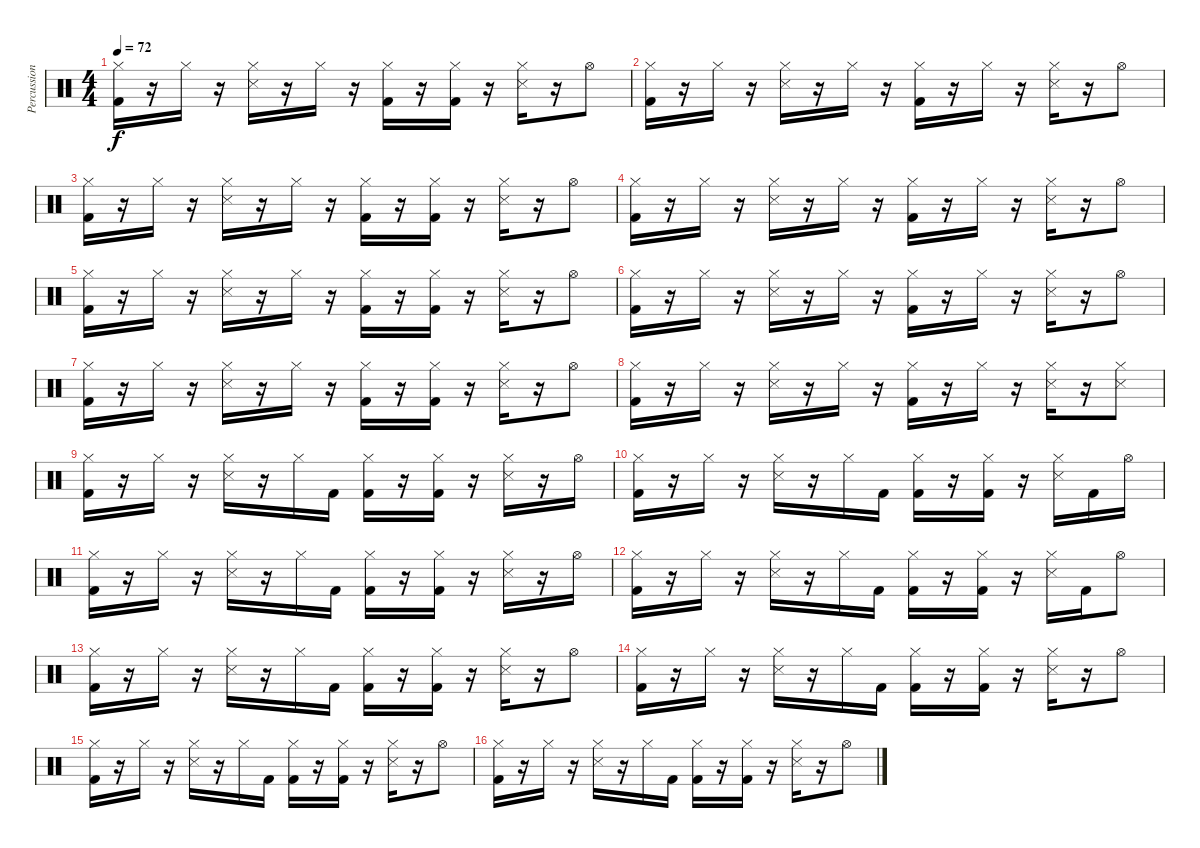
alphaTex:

\track ("Percussions" "Percussion") {instrument percussion}
\staff {score}
\articulation defaults
\ts (4 4)
\tempo 72
\clef neutral
\ks c
("Kick (hit) 2" "Hi-Hat (closed)").16{dy f} r.16 "Hi-Hat (closed)".16 r.16 ("Snare (side stick) 3" "Hi-Hat (closed)").16 r.16 "Hi-Hat (closed)".16 r.16 ("Kick (hit) 2" "Hi-Hat (closed)").16 r.16 ("Kick (hit) 2" "Hi-Hat (closed)").16 r.16 ("Snare (side stick) 3" "Hi-Hat (closed)").16 r.16 "Hi-Hat (open)".8 |
("Kick (hit) 2" "Hi-Hat (closed)").16 r.16 "Hi-Hat (closed)".16 r.16 ("Snare (side stick) 3" "Hi-Hat (closed)").16 r.16 "Hi-Hat (closed)".16 r.16 ("Kick (hit) 2" "Hi-Hat (closed)").16 r.16 "Hi-Hat (closed)".16 r.16 ("Snare (side stick) 3" "Hi-Hat (closed)").16 r.16 "Hi-Hat (open)".8 |
("Kick (hit) 2" "Hi-Hat (closed)").16 r.16 "Hi-Hat (closed)".16 r.16 ("Snare (side stick) 3" "Hi-Hat (closed)").16 r.16 "Hi-Hat (closed)".16 r.16 ("Kick (hit) 2" "Hi-Hat (closed)").16 r.16 ("Kick (hit) 2" "Hi-Hat (closed)").16 r.16 ("Snare (side stick) 3" "Hi-Hat (closed)").16 r.16 "Hi-Hat (open)".8 |
("Kick (hit) 2" "Hi-Hat (closed)").16 r.16 "Hi-Hat (closed)".16 r.16 ("Snare (side stick) 3" "Hi-Hat (closed)").16 r.16 "Hi-Hat (closed)".16 r.16 ("Kick (hit) 2" "Hi-Hat (closed)").16 r.16 "Hi-Hat (closed)".16 r.16 ("Snare (side stick) 3" "Hi-Hat (closed)").16 r.16 "Hi-Hat (open)".8 |
("Kick (hit) 2" "Hi-Hat (closed)").16 r.16 "Hi-Hat (closed)".16 r.16 ("Snare (side stick) 3" "Hi-Hat (closed)").16 r.16 "Hi-Hat (closed)".16 r.16 ("Kick (hit) 2" "Hi-Hat (closed)").16 r.16 ("Kick (hit) 2" "Hi-Hat (closed)").16 r.16 ("Snare (side stick) 3" "Hi-Hat (closed)").16 r.16 "Hi-Hat (open)".8 |
("Kick (hit) 2" "Hi-Hat (closed)").16 r.16 "Hi-Hat (closed)".16 r.16 ("Snare (side stick) 3" "Hi-Hat (closed)").16 r.16 "Hi-Hat (closed)".16 r.16 ("Kick (hit) 2" "Hi-Hat (closed)").16 r.16 "Hi-Hat (closed)".16 r.16 ("Snare (side stick) 3" "Hi-Hat (closed)").16 r.16 "Hi-Hat (open)".8 |
("Kick (hit) 2" "Hi-Hat (closed)").16 r.16 "Hi-Hat (closed)".16 r.16 ("Snare (side stick) 3" "Hi-Hat (closed)").16 r.16 "Hi-Hat (closed)".16 r.16 ("Kick (hit) 2" "Hi-Hat (closed)").16 r.16 ("Kick (hit) 2" "Hi-Hat (closed)").16 r.16 ("Snare (side stick) 3" "Hi-Hat (closed)").16 r.16 "Hi-Hat (open)".8 |
("Kick (hit) 2" "Hi-Hat (closed)").16 r.16 "Hi-Hat (closed)".16 r.16 ("Snare (side stick) 3" "Hi-Hat (closed)").16 r.16 "Hi-Hat (closed)".16 r.16 ("Kick (hit) 2" "Hi-Hat (closed)").16 r.16 "Hi-Hat (closed)".16 r.16 ("Snare (side stick) 3" "Hi-Hat (closed)").16 r.16 ("Snare (side stick) 3" "Hi-Hat (closed)").8 |
("Kick (hit) 2" "Hi-Hat (closed)").16 r.16 "Hi-Hat (closed)".16 r.16 ("Snare (side stick) 3" "Hi-Hat (closed)").16 r.16 "Hi-Hat (closed)".16 "Kick (hit) 2".16 ("Kick (hit) 2" "Hi-Hat (closed)").16 r.16 ("Kick (hit) 2" "Hi-Hat (closed)").16 r.16 ("Snare (side stick) 3" "Hi-Hat (closed)").16 r.16 "Hi-Hat (open)".16 |
("Kick (hit) 2" "Hi-Hat (closed)").16 r.16 "Hi-Hat (closed)".16 r.16 ("Snare (side stick) 3" "Hi-Hat (closed)").16 r.16 "Hi-Hat (closed)".16 "Kick (hit) 2".16 ("Kick (hit) 2" "Hi-Hat (closed)").16 r.16 ("Kick (hit) 2" "Hi-Hat (closed)").16 r.16 ("Snare (side stick) 3" "Hi-Hat (closed)").16 "Kick (hit) 2".16 "Hi-Hat (open)".16 |
("Kick (hit) 2" "Hi-Hat (closed)").16 r.16 "Hi-Hat (closed)".16 r.16 ("Snare (side stick) 3" "Hi-Hat (closed)").16 r.16 "Hi-Hat (closed)".16 "Kick (hit) 2".16 ("Kick (hit) 2" "Hi-Hat (closed)").16 r.16 ("Kick (hit) 2" "Hi-Hat (closed)").16 r.16 ("Snare (side stick) 3" "Hi-Hat (closed)").16 r.16 "Hi-Hat (open)".16 |
("Kick (hit) 2" "Hi-Hat (closed)").16 r.16 "Hi-Hat (closed)".16 r.16 ("Snare (side stick) 3" "Hi-Hat (closed)").16 r.16 "Hi-Hat (closed)".16 "Kick (hit) 2".16 ("Kick (hit) 2" "Hi-Hat (closed)").16 r.16 ("Kick (hit) 2" "Hi-Hat (closed)").16 r.16 ("Snare (side stick) 3" "Hi-Hat (closed)").16 "Kick (hit) 2".16 "Hi-Hat (open)".8 |
("Kick (hit) 2" "Hi-Hat (closed)").16 r.16 "Hi-Hat (closed)".16 r.16 ("Snare (side stick) 3" "Hi-Hat (closed)").16 r.16 "Hi-Hat (closed)".16 "Kick (hit) 2".16 ("Kick (hit) 2" "Hi-Hat (closed)").16 r.16 ("Kick (hit) 2" "Hi-Hat (closed)").16 r.16 ("Snare (side stick) 3" "Hi-Hat (closed)").16 r.16 "Hi-Hat (open)".8 |
("Kick (hit) 2" "Hi-Hat (closed)").16 r.16 "Hi-Hat (closed)".16 r.16 ("Snare (side stick) 3" "Hi-Hat (closed)").16 r.16 "Hi-Hat (closed)".16 "Kick (hit) 2".16 ("Kick (hit) 2" "Hi-Hat (closed)").16 r.16 ("Kick (hit) 2" "Hi-Hat (closed)").16 r.16 ("Snare (side stick) 3" "Hi-Hat (closed)").16 r.16 "Hi-Hat (open)".8 |
("Kick (hit) 2" "Hi-Hat (closed)").16 r.16 "Hi-Hat (closed)".16 r.16 ("Snare (side stick) 3" "Hi-Hat (closed)").16 r.16 "Hi-Hat (closed)".16 "Kick (hit) 2".16 ("Kick (hit) 2" "Hi-Hat (closed)").16 r.16 ("Kick (hit) 2" "Hi-Hat (closed)").16 r.16 ("Snare (side stick) 3" "Hi-Hat (closed)").16 r.16 "Hi-Hat (open)".8 |
("Kick (hit) 2" "Hi-Hat (closed)").16 r.16 "Hi-Hat (closed)".16 r.16 ("Snare (side stick) 3" "Hi-Hat (closed)").16 r.16 "Hi-Hat (closed)".16 "Kick (hit) 2".16 ("Kick (hit) 2" "Hi-Hat (closed)").16 r.16 ("Kick (hit) 2" "Hi-Hat (closed)").16 r.16 ("Snare (side stick) 3" "Hi-Hat (closed)").16 r.16 "Hi-Hat (open)".8
